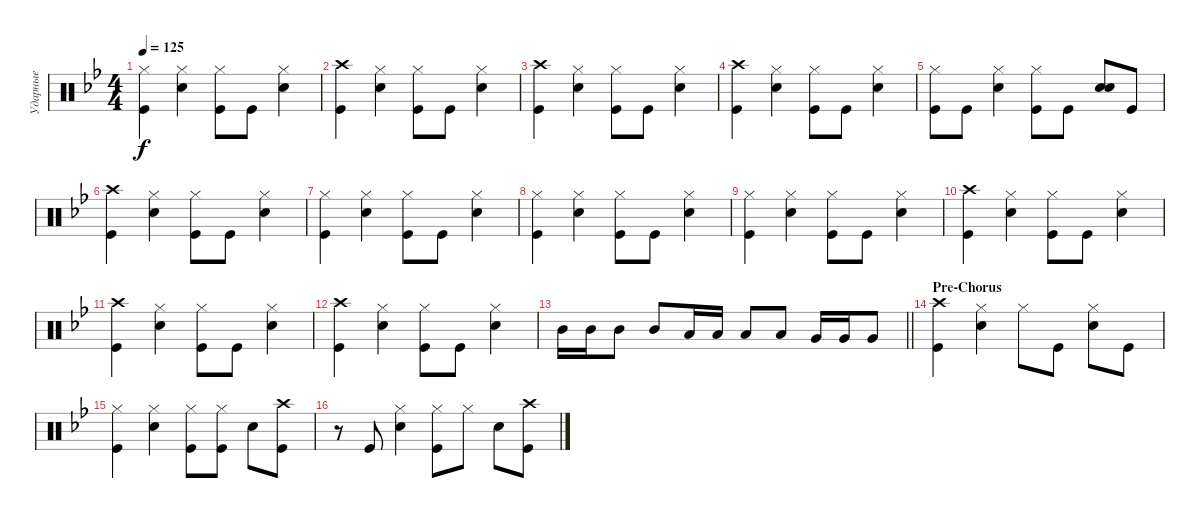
\track ("Ударные" "Ударные") {instrument percussion}
\staff {score}
\articulation defaults
\ts (4 4)
\tempo 125
\clef neutral
\ks gminor
("Kick (hit)" "Hi-Hat (closed)").4{dy f} ("Hi-Hat (closed)" "Snare (hit) 2").4 ("Hi-Hat (closed)" "Kick (hit)").8 "Kick (hit)".8 ("Hi-Hat (closed)" "Snare (hit) 2").4 |
("Kick (hit)" "Crash high (hit)").4 ("Hi-Hat (closed)" "Snare (hit) 2").4 ("Hi-Hat (closed)" "Kick (hit)").8 "Kick (hit)".8 ("Hi-Hat (closed)" "Snare (hit) 2").4 |
("Kick (hit)" "Crash high (hit)").4 ("Hi-Hat (closed)" "Snare (hit) 2").4 ("Hi-Hat (closed)" "Kick (hit)").8 "Kick (hit)".8 ("Hi-Hat (closed)" "Snare (hit) 2").4 |
("Kick (hit)" "Crash high (hit)").4 ("Hi-Hat (closed)" "Snare (hit) 2").4 ("Hi-Hat (closed)" "Kick (hit)").8 "Kick (hit)".8 ("Hi-Hat (closed)" "Snare (hit) 2").4 |
("Kick (hit)" "Hi-Hat (closed)").8 "Kick (hit)".8 ("Hi-Hat (closed)" "Snare (hit) 2").4 ("Hi-Hat (closed)" "Kick (hit)").8 "Kick (hit)".8 ("Snare (hit) 2" "Snare (hit) 2").8{bd 120} "Kick (hit)".8 |
("Kick (hit)" "Crash high (hit)").4 ("Hi-Hat (closed)" "Snare (hit) 2").4 ("Hi-Hat (closed)" "Kick (hit)").8 "Kick (hit)".8 ("Hi-Hat (closed)" "Snare (hit) 2").4 |
("Kick (hit)" "Hi-Hat (closed)").4 ("Hi-Hat (closed)" "Snare (hit) 2").4 ("Hi-Hat (closed)" "Kick (hit)").8 "Kick (hit)".8 ("Hi-Hat (closed)" "Snare (hit) 2").4 |
("Kick (hit)" "Hi-Hat (closed)").4 ("Hi-Hat (closed)" "Snare (hit) 2").4 ("Hi-Hat (closed)" "Kick (hit)").8 "Kick (hit)".8 ("Hi-Hat (closed)" "Snare (hit) 2").4 |
("Kick (hit)" "Hi-Hat (closed)").4 ("Hi-Hat (closed)" "Snare (hit) 2").4 ("Hi-Hat (closed)" "Kick (hit)").8 "Kick (hit)".8 ("Hi-Hat (closed)" "Snare (hit) 2").4 |
("Kick (hit)" "Crash high (hit)").4 ("Hi-Hat (closed)" "Snare (hit) 2").4 ("Hi-Hat (closed)" "Kick (hit)").8 "Kick (hit)".8 ("Hi-Hat (closed)" "Snare (hit) 2").4 |
("Kick (hit)" "Crash high (hit)").4 ("Hi-Hat (closed)" "Snare (hit) 2").4 ("Hi-Hat (closed)" "Kick (hit)").8 "Kick (hit)".8 ("Hi-Hat (closed)" "Snare (hit) 2").4 |
("Kick (hit)" "Crash high (hit)").4 ("Hi-Hat (closed)" "Snare (hit) 2").4 ("Hi-Hat (closed)" "Kick (hit)").8 "Kick (hit)".8 ("Hi-Hat (closed)" "Snare (hit) 2").4 |
\barLineRight lightlight "Mid Tom (hit)".16 "Mid Tom (hit)".16 "Mid Tom (hit)".8 "Mid Tom (hit)".8 "Low Tom (hit)".16 "Low Tom (hit)".16 "Low Tom (hit)".8 "Low Tom (hit)".8 "Very Low Tom (hit)".16 "Very Low Tom (hit)".16 "Very Low Tom (hit)".8
|
\section ("" "Pre-Chorus")
("Kick (hit)" "Crash high (hit)").4 ("Snare (hit) 2" "Hi-Hat (closed)").4 "Hi-Hat (closed)".8 "Kick (hit)".8 ("Snare (hit) 2" "Hi-Hat (closed)").8 "Kick (hit)".8 |
("Kick (hit)" "Hi-Hat (closed)").4 ("Hi-Hat (closed)" "Snare (hit) 2").4 ("Hi-Hat (closed)" "Kick (hit)").8 ("Kick (hit)" "Hi-Hat (closed)").8 "Snare (hit) 2".8 ("Kick (hit)" "Crash high (hit)").8 |
r.8 "Kick (hit)".8 ("Hi-Hat (closed)" "Snare (hit) 2").4 ("Hi-Hat (closed)" "Kick (hit)").8 "Hi-Hat (closed)".8 "Snare (hit) 2".8 ("Kick (hit)" "Crash high (hit)").8
